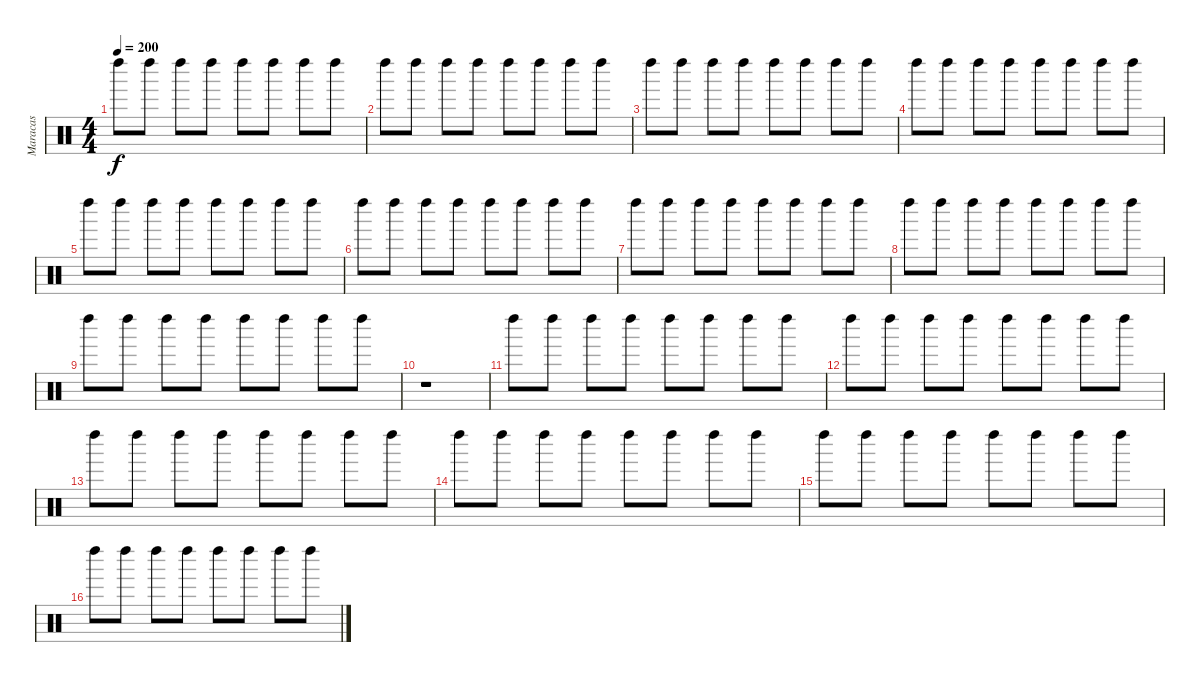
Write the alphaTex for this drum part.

\track ("Maracas" "Maracas") {instrument percussion}
\staff {score}
\articulation defaults
\ts (4 4)
\tempo 200
\clef neutral
\ks c "Left Maraca (hit)".8{dy f} "Left Maraca (hit)".8 "Left Maraca (hit)".8 "Left Maraca (hit)".8 "Left Maraca (hit)".8 "Left Maraca (hit)".8 "Left Maraca (hit)".8 "Left Maraca (hit)".8
|
"Left Maraca (hit)".8 "Left Maraca (hit)".8 "Left Maraca (hit)".8 "Left Maraca (hit)".8 "Left Maraca (hit)".8 "Left Maraca (hit)".8 "Left Maraca (hit)".8 "Left Maraca (hit)".8 |
"Left Maraca (hit)".8 "Left Maraca (hit)".8 "Left Maraca (hit)".8 "Left Maraca (hit)".8 "Left Maraca (hit)".8 "Left Maraca (hit)".8 "Left Maraca (hit)".8 "Left Maraca (hit)".8 |
"Left Maraca (hit)".8 "Left Maraca (hit)".8 "Left Maraca (hit)".8 "Left Maraca (hit)".8 "Left Maraca (hit)".8 "Left Maraca (hit)".8 "Left Maraca (hit)".8 "Left Maraca (hit)".8 |
"Left Maraca (hit)".8 "Left Maraca (hit)".8 "Left Maraca (hit)".8 "Left Maraca (hit)".8 "Left Maraca (hit)".8 "Left Maraca (hit)".8 "Left Maraca (hit)".8 "Left Maraca (hit)".8 |
"Left Maraca (hit)".8 "Left Maraca (hit)".8 "Left Maraca (hit)".8 "Left Maraca (hit)".8 "Left Maraca (hit)".8 "Left Maraca (hit)".8 "Left Maraca (hit)".8 "Left Maraca (hit)".8 |
"Left Maraca (hit)".8 "Left Maraca (hit)".8 "Left Maraca (hit)".8 "Left Maraca (hit)".8 "Left Maraca (hit)".8 "Left Maraca (hit)".8 "Left Maraca (hit)".8 "Left Maraca (hit)".8 |
"Left Maraca (hit)".8 "Left Maraca (hit)".8 "Left Maraca (hit)".8 "Left Maraca (hit)".8 "Left Maraca (hit)".8 "Left Maraca (hit)".8 "Left Maraca (hit)".8 "Left Maraca (hit)".8 |
"Left Maraca (hit)".8 "Left Maraca (hit)".8 "Left Maraca (hit)".8 "Left Maraca (hit)".8 "Left Maraca (hit)".8 "Left Maraca (hit)".8 "Left Maraca (hit)".8 "Left Maraca (hit)".8 |
r.1 |
"Left Maraca (hit)".8 "Left Maraca (hit)".8 "Left Maraca (hit)".8 "Left Maraca (hit)".8 "Left Maraca (hit)".8 "Left Maraca (hit)".8 "Left Maraca (hit)".8 "Left Maraca (hit)".8 |
"Left Maraca (hit)".8 "Left Maraca (hit)".8 "Left Maraca (hit)".8 "Left Maraca (hit)".8 "Left Maraca (hit)".8 "Left Maraca (hit)".8 "Left Maraca (hit)".8 "Left Maraca (hit)".8 |
"Left Maraca (hit)".8 "Left Maraca (hit)".8 "Left Maraca (hit)".8 "Left Maraca (hit)".8 "Left Maraca (hit)".8 "Left Maraca (hit)".8 "Left Maraca (hit)".8 "Left Maraca (hit)".8 |
"Left Maraca (hit)".8 "Left Maraca (hit)".8 "Left Maraca (hit)".8 "Left Maraca (hit)".8 "Left Maraca (hit)".8 "Left Maraca (hit)".8 "Left Maraca (hit)".8 "Left Maraca (hit)".8 |
"Left Maraca (hit)".8 "Left Maraca (hit)".8 "Left Maraca (hit)".8 "Left Maraca (hit)".8 "Left Maraca (hit)".8 "Left Maraca (hit)".8 "Left Maraca (hit)".8 "Left Maraca (hit)".8 |
"Left Maraca (hit)".8 "Left Maraca (hit)".8 "Left Maraca (hit)".8 "Left Maraca (hit)".8 "Left Maraca (hit)".8 "Left Maraca (hit)".8 "Left Maraca (hit)".8 "Left Maraca (hit)".8
